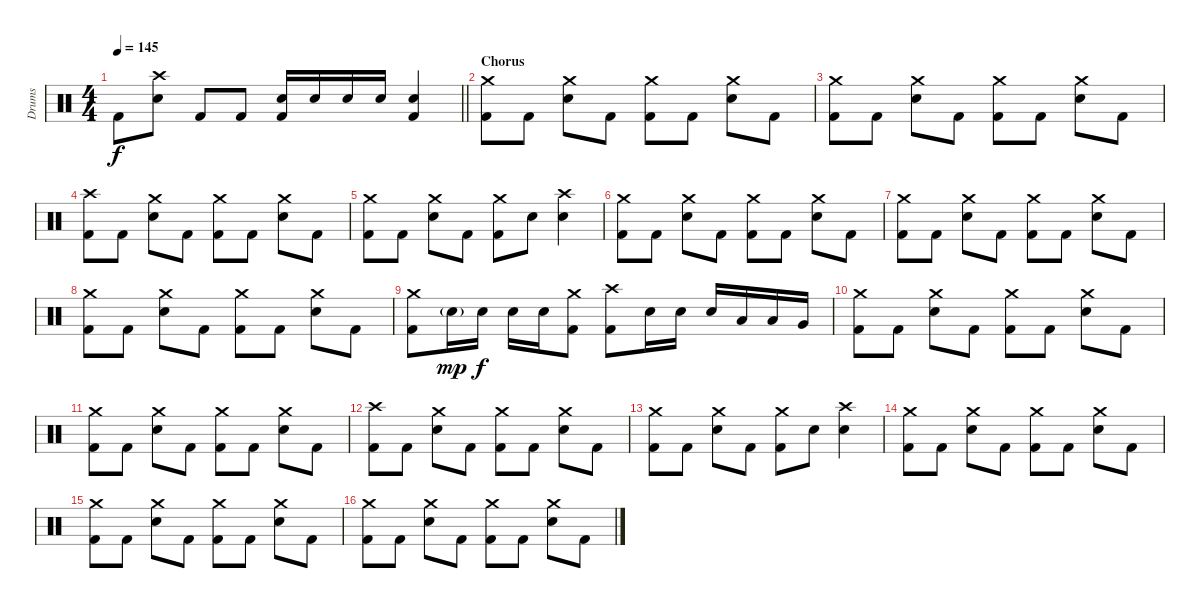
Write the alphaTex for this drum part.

\track ("Drums" "Drums") {instrument percussion}
\staff {score}
\articulation defaults
\ts (4 4)
\tempo 145
\clef neutral
\barLineRight lightlight
\ks c "Kick (hit) 2".8{dy f}
("Crash high (hit)" "Electric Snare (hit)").8 "Kick (hit) 2".8 "Kick (hit) 2".8 ("Electric Snare (hit)" "Kick (hit) 2").16 "Electric Snare (hit)".16 "Electric Snare (hit)".16 "Electric Snare (hit)".16 ("Electric Snare (hit)" "Kick (hit) 2").4 |
\section ("" "Chorus")
("Crash medium (hit)" "Kick (hit) 2").8 "Kick (hit) 2".8 ("Crash medium (hit)" "Electric Snare (hit)").8 "Kick (hit) 2".8 ("Crash medium (hit)" "Kick (hit) 2").8 "Kick (hit) 2".8 ("Crash medium (hit)" "Electric Snare (hit)").8 "Kick (hit) 2".8 |
("Crash medium (hit)" "Kick (hit) 2").8 "Kick (hit) 2".8 ("Crash medium (hit)" "Electric Snare (hit)").8 "Kick (hit) 2".8 ("Crash medium (hit)" "Kick (hit) 2").8 "Kick (hit) 2".8 ("Crash medium (hit)" "Electric Snare (hit)").8 "Kick (hit) 2".8 |
("Crash high (hit)" "Kick (hit) 2").8 "Kick (hit) 2".8 ("Crash medium (hit)" "Electric Snare (hit)").8 "Kick (hit) 2".8 ("Crash medium (hit)" "Kick (hit) 2").8 "Kick (hit) 2".8 ("Crash medium (hit)" "Electric Snare (hit)").8 "Kick (hit) 2".8 |
("Crash medium (hit)" "Kick (hit) 2").8 "Kick (hit) 2".8 ("Crash medium (hit)" "Electric Snare (hit)").8 "Kick (hit) 2".8 ("Crash medium (hit)" "Kick (hit) 2").8 "Electric Snare (hit)".8 ("Crash high (hit)" "Electric Snare (hit)").4 |
("Crash medium (hit)" "Kick (hit) 2").8 "Kick (hit) 2".8 ("Crash medium (hit)" "Electric Snare (hit)").8 "Kick (hit) 2".8 ("Crash medium (hit)" "Kick (hit) 2").8 "Kick (hit) 2".8 ("Crash medium (hit)" "Electric Snare (hit)").8 "Kick (hit) 2".8 |
("Crash medium (hit)" "Kick (hit) 2").8 "Kick (hit) 2".8 ("Crash medium (hit)" "Electric Snare (hit)").8 "Kick (hit) 2".8 ("Crash medium (hit)" "Kick (hit) 2").8 "Kick (hit) 2".8 ("Crash medium (hit)" "Electric Snare (hit)").8 "Kick (hit) 2".8 |
("Crash medium (hit)" "Kick (hit) 2").8 "Kick (hit) 2".8 ("Crash medium (hit)" "Electric Snare (hit)").8 "Kick (hit) 2".8 ("Crash medium (hit)" "Kick (hit) 2").8 "Kick (hit) 2".8 ("Crash medium (hit)" "Electric Snare (hit)").8 "Kick (hit) 2".8 |
("Crash medium (hit)" "Kick (hit) 2").8 "Electric Snare (hit)"{g}.16{dy mp} "Electric Snare (hit)".16{dy f} "Electric Snare (hit)".16 "Electric Snare (hit)".16 ("Crash medium (hit)" "Kick (hit) 2").8 ("Crash high (hit)" "Kick (hit) 2").8 "Electric Snare (hit)".16 "Electric Snare (hit)".16 "Electric Snare (hit)".16 "Low Tom (hit)".16 "Low Tom (hit)".16 "Very Low Tom (hit)".16 |
("Crash medium (hit)" "Kick (hit) 2").8 "Kick (hit) 2".8 ("Crash medium (hit)" "Electric Snare (hit)").8 "Kick (hit) 2".8 ("Crash medium (hit)" "Kick (hit) 2").8 "Kick (hit) 2".8 ("Crash medium (hit)" "Electric Snare (hit)").8 "Kick (hit) 2".8 |
("Crash medium (hit)" "Kick (hit) 2").8 "Kick (hit) 2".8 ("Crash medium (hit)" "Electric Snare (hit)").8 "Kick (hit) 2".8 ("Crash medium (hit)" "Kick (hit) 2").8 "Kick (hit) 2".8 ("Crash medium (hit)" "Electric Snare (hit)").8 "Kick (hit) 2".8 |
("Crash high (hit)" "Kick (hit) 2").8 "Kick (hit) 2".8 ("Crash medium (hit)" "Electric Snare (hit)").8 "Kick (hit) 2".8 ("Crash medium (hit)" "Kick (hit) 2").8 "Kick (hit) 2".8 ("Crash medium (hit)" "Electric Snare (hit)").8 "Kick (hit) 2".8 |
("Crash medium (hit)" "Kick (hit) 2").8 "Kick (hit) 2".8 ("Crash medium (hit)" "Electric Snare (hit)").8 "Kick (hit) 2".8 ("Crash medium (hit)" "Kick (hit) 2").8 "Electric Snare (hit)".8 ("Crash high (hit)" "Electric Snare (hit)").4 |
("Crash medium (hit)" "Kick (hit) 2").8 "Kick (hit) 2".8 ("Crash medium (hit)" "Electric Snare (hit)").8 "Kick (hit) 2".8 ("Crash medium (hit)" "Kick (hit) 2").8 "Kick (hit) 2".8 ("Crash medium (hit)" "Electric Snare (hit)").8 "Kick (hit) 2".8 |
("Crash medium (hit)" "Kick (hit) 2").8 "Kick (hit) 2".8 ("Crash medium (hit)" "Electric Snare (hit)").8 "Kick (hit) 2".8 ("Crash medium (hit)" "Kick (hit) 2").8 "Kick (hit) 2".8 ("Crash medium (hit)" "Electric Snare (hit)").8 "Kick (hit) 2".8 |
("Crash medium (hit)" "Kick (hit) 2").8 "Kick (hit) 2".8 ("Crash medium (hit)" "Electric Snare (hit)").8 "Kick (hit) 2".8 ("Crash medium (hit)" "Kick (hit) 2").8 "Kick (hit) 2".8 ("Crash medium (hit)" "Electric Snare (hit)").8 "Kick (hit) 2".8
